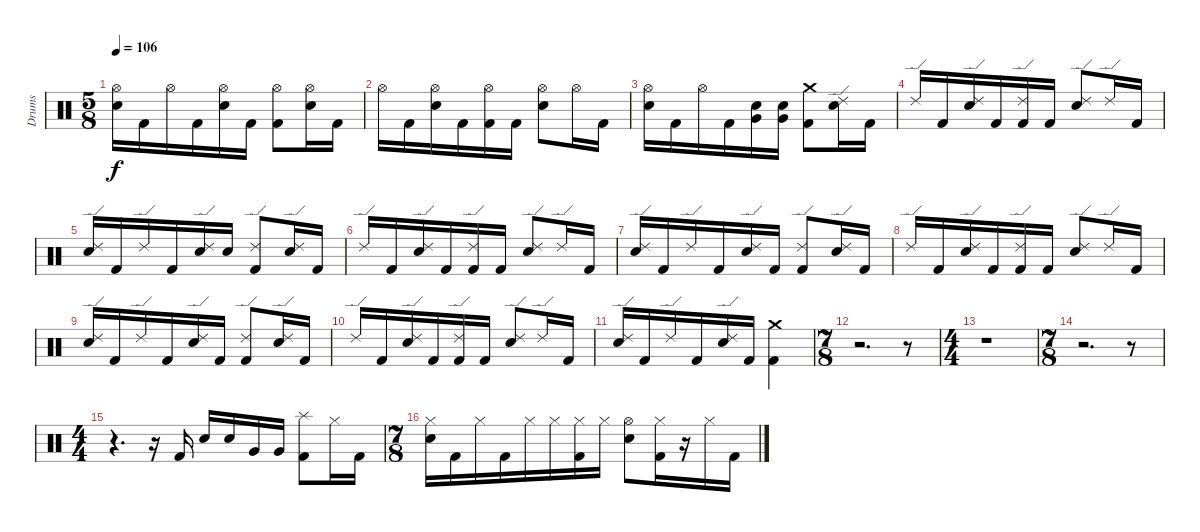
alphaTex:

\track ("Drums" "Drums") {instrument percussion}
\staff {score}
\articulation defaults
\ts (5 8)
\tempo 106
\clef neutral
\ks c
("Electric Snare (hit)" "Hi-Hat (open)").16{dy f} "Kick (hit) 2".16 "Hi-Hat (open)".16 "Kick (hit) 2".16 ("Electric Snare (hit)" "Hi-Hat (open)").16 "Kick (hit) 2".16 ("Kick (hit) 2" "Hi-Hat (open)").8 ("Electric Snare (hit)" "Hi-Hat (open)").16 "Kick (hit) 2".16 |
"Hi-Hat (open)".16 "Kick (hit) 2".16 ("Electric Snare (hit)" "Hi-Hat (open)").16 "Kick (hit) 2".16 ("Kick (hit) 2" "Hi-Hat (open)").16 "Kick (hit) 2".16 ("Electric Snare (hit)" "Hi-Hat (open)").8 "Hi-Hat (open)".16 "Kick (hit) 2".16 |
("Electric Snare (hit)" "Hi-Hat (open)").16 "Kick (hit) 2".16 "Hi-Hat (open)".16 "Kick (hit) 2".16 ("Very Low Tom (hit)" "Electric Snare (hit)").16 ("Very Low Tom (hit)" "Electric Snare (hit)").16 ("Kick (hit) 2" "Crash medium (hit)").8 ("Ride (edge) 2" "Electric Snare (hit)").16 "Kick (hit) 2".16 |
"Ride (edge) 2".16 "Kick (hit) 2".16 ("Ride (edge) 2" "Electric Snare (hit)").16 "Kick (hit) 2".16 ("Ride (edge) 2" "Kick (hit) 2").16 "Kick (hit) 2".16 ("Ride (edge) 2" "Electric Snare (hit)").8 "Ride (edge) 2".16 "Kick (hit) 2".16 |
("Ride (edge) 2" "Electric Snare (hit)").16 "Kick (hit) 2".16 "Ride (edge) 2".16 "Kick (hit) 2".16 ("Ride (edge) 2" "Electric Snare (hit)").16 "Electric Snare (hit)".16 ("Ride (edge) 2" "Kick (hit) 2").8 ("Ride (edge) 2" "Electric Snare (hit)").16 "Kick (hit) 2".16 |
"Ride (edge) 2".16 "Kick (hit) 2".16 ("Ride (edge) 2" "Electric Snare (hit)").16 "Kick (hit) 2".16 ("Ride (edge) 2" "Kick (hit) 2").16 "Kick (hit) 2".16 ("Ride (edge) 2" "Electric Snare (hit)").8 "Ride (edge) 2".16 "Kick (hit) 2".16 |
("Ride (edge) 2" "Electric Snare (hit)").16 "Kick (hit) 2".16 "Ride (edge) 2".16 "Kick (hit) 2".16 ("Ride (edge) 2" "Electric Snare (hit)").16 "Kick (hit) 2".16 ("Ride (edge) 2" "Kick (hit) 2").8 ("Ride (edge) 2" "Electric Snare (hit)").16 "Kick (hit) 2".16 |
"Ride (edge) 2".16 "Kick (hit) 2".16 ("Ride (edge) 2" "Electric Snare (hit)").16 "Kick (hit) 2".16 ("Ride (edge) 2" "Kick (hit) 2").16 "Kick (hit) 2".16 ("Ride (edge) 2" "Electric Snare (hit)").8 "Ride (edge) 2".16 "Kick (hit) 2".16 |
("Ride (edge) 2" "Electric Snare (hit)").16 "Kick (hit) 2".16 "Ride (edge) 2".16 "Kick (hit) 2".16 ("Ride (edge) 2" "Electric Snare (hit)").16 "Kick (hit) 2".16 ("Ride (edge) 2" "Kick (hit) 2").8 ("Ride (edge) 2" "Electric Snare (hit)").16 "Kick (hit) 2".16 |
"Ride (edge) 2".16 "Kick (hit) 2".16 ("Ride (edge) 2" "Electric Snare (hit)").16 "Kick (hit) 2".16 ("Ride (edge) 2" "Kick (hit) 2").16 "Kick (hit) 2".16 ("Ride (edge) 2" "Electric Snare (hit)").8 "Ride (edge) 2".16 "Kick (hit) 2".16 |
("Ride (edge) 2" "Electric Snare (hit)").16 "Kick (hit) 2".16 "Ride (edge) 2".16 "Kick (hit) 2".16 ("Ride (edge) 2" "Electric Snare (hit)").16 "Kick (hit) 2".16 ("Crash medium (hit)" "Kick (hit) 2").4 |
\ts (7 8)
r.2{d} r.8 |
\ts (4 4)
r.1 |
\ts (7 8)
r.2{d} r.8 |
\ts (4 4)
r.4{d} r.16 "Kick (hit) 2".16 "Electric Snare (hit)".16 "Electric Snare (hit)".16 "Very Low Tom (hit)".16 "Very Low Tom (hit)".16 ("Splash (hit)" "Kick (hit) 2").8 "Hi-Hat (closed)".16 "Kick (hit) 2".16 |
\ts (7 8)
("Hi-Hat (closed)" "Electric Snare (hit)").16 "Kick (hit) 2".16 "Hi-Hat (closed)".16 "Kick (hit) 2".16 "Hi-Hat (closed)".16 "Hi-Hat (closed)".16 ("Hi-Hat (closed)" "Kick (hit) 2").16 "Hi-Hat (closed)".16 ("Hi-Hat (open)" "Electric Snare (hit)").8 ("Hi-Hat (closed)" "Kick (hit) 2").16 r.16 "Hi-Hat (closed)".16 "Kick (hit) 2".16
